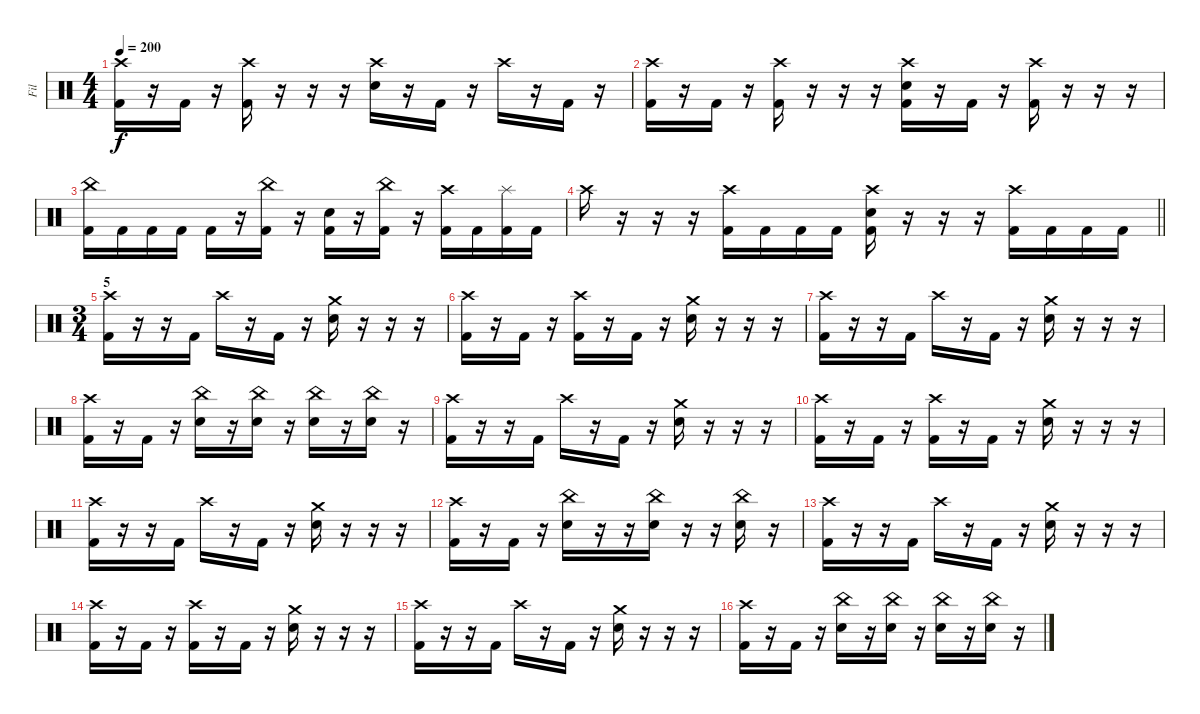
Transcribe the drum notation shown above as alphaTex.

\track ("Fil" "Fil") {instrument percussion}
\staff {score}
\articulation defaults
\ts (4 4)
\tempo 200
\clef neutral
\ks c
("Crash high (hit)" "Kick (hit) 2").16{dy f} r.16 "Kick (hit) 2".16 r.16 ("Crash high (hit)" "Kick (hit) 2").16 r.16 r.16 r.16 ("Crash high (hit)" "Electric Snare (hit)").16 r.16 "Kick (hit) 2".16 r.16 "Crash high (hit)".16 r.16 "Kick (hit) 2".16 r.16 |
("Crash high (hit)" "Kick (hit) 2").16 r.16 "Kick (hit) 2".16 r.16 ("Crash high (hit)" "Kick (hit) 2").16 r.16 r.16 r.16 ("Crash high (hit)" "Electric Snare (hit)" "Kick (hit) 2").16 r.16 "Kick (hit) 2".16 r.16 ("Crash high (hit)" "Kick (hit) 2").16 r.16 r.16 r.16 |
("China (hit)" "Kick (hit) 2").16 "Kick (hit) 2".16 "Kick (hit) 2".16 "Kick (hit) 2".16 "Kick (hit) 2".16 r.16 ("China (hit)" "Kick (hit) 2").16 r.16 ("Electric Snare (hit)" "Kick (hit) 2").16 r.16 ("China (hit)" "Kick (hit) 2").16 r.16 ("Crash high (hit)" "Kick (hit) 2").16 "Kick (hit) 2".16 ("Splash (hit)" "Kick (hit) 2").16 "Kick (hit) 2".16 |
\barLineRight lightlight "Crash high (hit)".16
r.16 r.16 r.16 ("Crash high (hit)" "Kick (hit) 2").16 "Kick (hit) 2".16 "Kick (hit) 2".16 "Kick (hit) 2".16 ("Crash high (hit)" "Electric Snare (hit)" "Kick (hit) 2").16 r.16 r.16 r.16 ("Crash high (hit)" "Kick (hit) 2").16 "Kick (hit) 2".16 "Kick (hit) 2".16 "Kick (hit) 2".16 |
\ts (3 4)
\section ("" "5")
("Crash high (hit)" "Kick (hit) 2").16 r.16 r.16 "Kick (hit) 2".16 "Crash high (hit)".16 r.16 "Kick (hit) 2".16 r.16 ("Crash medium (hit)" "Electric Snare (hit)").16 r.16 r.16 r.16 |
("Crash high (hit)" "Kick (hit) 2").16 r.16 "Kick (hit) 2".16 r.16 ("Crash high (hit)" "Kick (hit) 2").16 r.16 "Kick (hit) 2".16 r.16 ("Crash medium (hit)" "Electric Snare (hit)").16 r.16 r.16 r.16 |
("Crash high (hit)" "Kick (hit) 2").16 r.16 r.16 "Kick (hit) 2".16 "Crash high (hit)".16 r.16 "Kick (hit) 2".16 r.16 ("Crash medium (hit)" "Electric Snare (hit)").16 r.16 r.16 r.16 |
("Crash high (hit)" "Kick (hit) 2").16 r.16 "Kick (hit) 2".16 r.16 ("China (hit)" "Electric Snare (hit)").16 r.16 ("China (hit)" "Electric Snare (hit)").16 r.16 ("China (hit)" "Electric Snare (hit)").16 r.16 ("China (hit)" "Electric Snare (hit)").16 r.16 |
("Crash high (hit)" "Kick (hit) 2").16 r.16 r.16 "Kick (hit) 2".16 "Crash high (hit)".16 r.16 "Kick (hit) 2".16 r.16 ("Crash medium (hit)" "Electric Snare (hit)").16 r.16 r.16 r.16 |
("Crash high (hit)" "Kick (hit) 2").16 r.16 "Kick (hit) 2".16 r.16 ("Crash high (hit)" "Kick (hit) 2").16 r.16 "Kick (hit) 2".16 r.16 ("Crash medium (hit)" "Electric Snare (hit)").16 r.16 r.16 r.16 |
("Crash high (hit)" "Kick (hit) 2").16 r.16 r.16 "Kick (hit) 2".16 "Crash high (hit)".16 r.16 "Kick (hit) 2".16 r.16 ("Crash medium (hit)" "Electric Snare (hit)").16 r.16 r.16 r.16 |
("Crash high (hit)" "Kick (hit) 2").16 r.16 "Kick (hit) 2".16 r.16 ("China (hit)" "Electric Snare (hit)").16 r.16 r.16 ("China (hit)" "Electric Snare (hit)").16 r.16 r.16 ("China (hit)" "Electric Snare (hit)").16 r.16 |
("Crash high (hit)" "Kick (hit) 2").16 r.16 r.16 "Kick (hit) 2".16 "Crash high (hit)".16 r.16 "Kick (hit) 2".16 r.16 ("Crash medium (hit)" "Electric Snare (hit)").16 r.16 r.16 r.16 |
("Crash high (hit)" "Kick (hit) 2").16 r.16 "Kick (hit) 2".16 r.16 ("Crash high (hit)" "Kick (hit) 2").16 r.16 "Kick (hit) 2".16 r.16 ("Crash medium (hit)" "Electric Snare (hit)").16 r.16 r.16 r.16 |
("Crash high (hit)" "Kick (hit) 2").16 r.16 r.16 "Kick (hit) 2".16 "Crash high (hit)".16 r.16 "Kick (hit) 2".16 r.16 ("Crash medium (hit)" "Electric Snare (hit)").16 r.16 r.16 r.16 |
("Crash high (hit)" "Kick (hit) 2").16 r.16 "Kick (hit) 2".16 r.16 ("China (hit)" "Electric Snare (hit)").16 r.16 ("China (hit)" "Electric Snare (hit)").16 r.16 ("China (hit)" "Electric Snare (hit)").16 r.16 ("China (hit)" "Electric Snare (hit)").16 r.16
